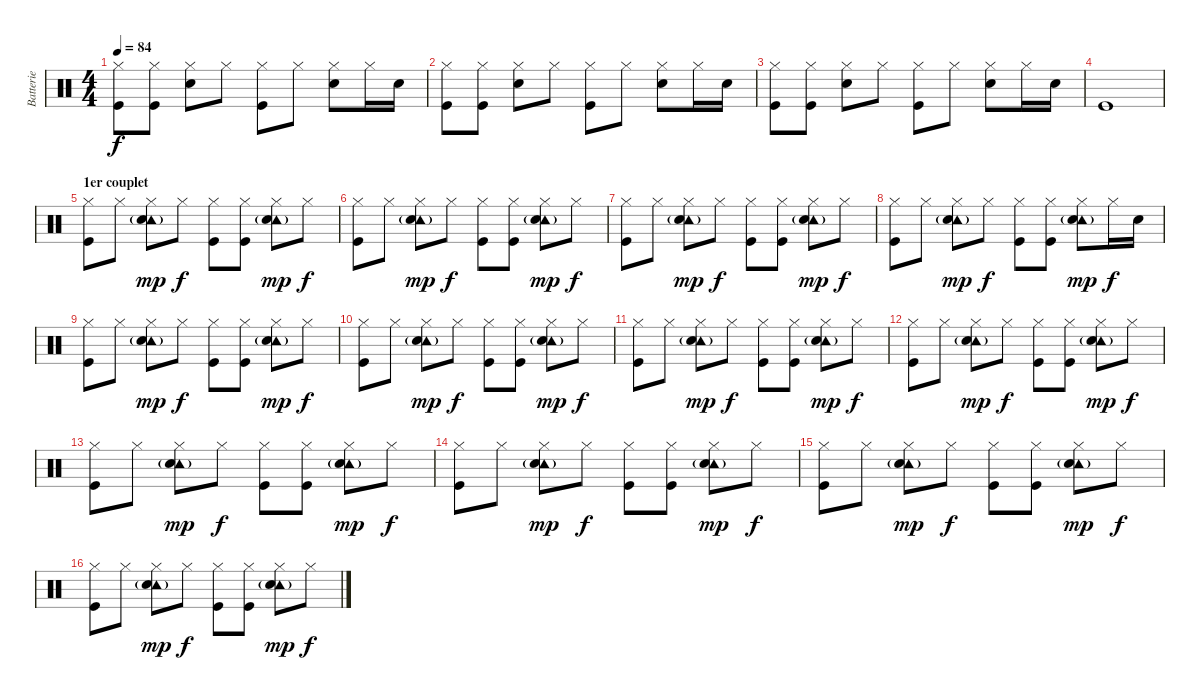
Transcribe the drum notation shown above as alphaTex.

\track ("Batterie" "Batterie") {instrument percussion}
\staff {score}
\articulation defaults
\ts (4 4)
\tempo 84
\clef neutral
\ks c
("Hi-Hat (closed)" "Kick (hit)").8{dy f} ("Hi-Hat (closed)" "Kick (hit)").8 ("Hi-Hat (closed)" "Snare (hit) 2").8 "Hi-Hat (closed)".8 ("Hi-Hat (closed)" "Kick (hit)").8 "Hi-Hat (closed)".8 ("Hi-Hat (closed)" "Snare (hit) 2").8 "Hi-Hat (closed)".16 "Snare (hit) 2".16 |
("Hi-Hat (closed)" "Kick (hit)").8 ("Hi-Hat (closed)" "Kick (hit)").8 ("Hi-Hat (closed)" "Snare (hit) 2").8 "Hi-Hat (closed)".8 ("Hi-Hat (closed)" "Kick (hit)").8 "Hi-Hat (closed)".8 ("Hi-Hat (closed)" "Snare (hit) 2").8 "Hi-Hat (closed)".16 "Snare (hit) 2".16 |
("Hi-Hat (closed)" "Kick (hit)").8 ("Hi-Hat (closed)" "Kick (hit)").8 ("Hi-Hat (closed)" "Snare (hit) 2").8 "Hi-Hat (closed)".8 ("Hi-Hat (closed)" "Kick (hit)").8 "Hi-Hat (closed)".8 ("Hi-Hat (closed)" "Snare (hit) 2").8 "Hi-Hat (closed)".16 "Snare (hit) 2".16 |
"Kick (hit)".1 |
\section ("" "1er couplet")
("Hi-Hat (closed)" "Kick (hit)").8 "Hi-Hat (closed)".8 ("Hi-Hat (closed)" "Tambourine (hit)"{g} "Snare (hit) 2").8{dy mp} "Hi-Hat (closed)".8{dy f} ("Hi-Hat (closed)" "Kick (hit)").8 ("Hi-Hat (closed)" "Kick (hit)").8 ("Hi-Hat (closed)" "Tambourine (hit)"{g} "Snare (hit) 2").8{dy mp} "Hi-Hat (closed)".8{dy f} |
("Hi-Hat (closed)" "Kick (hit)").8 "Hi-Hat (closed)".8 ("Hi-Hat (closed)" "Tambourine (hit)"{g} "Snare (hit) 2").8{dy mp} "Hi-Hat (closed)".8{dy f} ("Hi-Hat (closed)" "Kick (hit)").8 ("Hi-Hat (closed)" "Kick (hit)").8 ("Hi-Hat (closed)" "Tambourine (hit)"{g} "Snare (hit) 2").8{dy mp} "Hi-Hat (closed)".8{dy f} |
("Hi-Hat (closed)" "Kick (hit)").8 "Hi-Hat (closed)".8 ("Hi-Hat (closed)" "Tambourine (hit)"{g} "Snare (hit) 2").8{dy mp} "Hi-Hat (closed)".8{dy f} ("Hi-Hat (closed)" "Kick (hit)").8 ("Hi-Hat (closed)" "Kick (hit)").8 ("Hi-Hat (closed)" "Tambourine (hit)"{g} "Snare (hit) 2").8{dy mp} "Hi-Hat (closed)".8{dy f} |
("Hi-Hat (closed)" "Kick (hit)").8 "Hi-Hat (closed)".8 ("Hi-Hat (closed)" "Tambourine (hit)"{g} "Snare (hit) 2").8{dy mp} "Hi-Hat (closed)".8{dy f} ("Hi-Hat (closed)" "Kick (hit)").8 ("Hi-Hat (closed)" "Kick (hit)").8 ("Hi-Hat (closed)" "Tambourine (hit)"{g} "Snare (hit) 2").8{dy mp} "Hi-Hat (closed)".16{dy f} "Snare (hit) 2".16 |
("Hi-Hat (closed)" "Kick (hit)").8 "Hi-Hat (closed)".8 ("Hi-Hat (closed)" "Tambourine (hit)"{g} "Snare (hit) 2").8{dy mp} "Hi-Hat (closed)".8{dy f} ("Hi-Hat (closed)" "Kick (hit)").8 ("Hi-Hat (closed)" "Kick (hit)").8 ("Hi-Hat (closed)" "Tambourine (hit)"{g} "Snare (hit) 2").8{dy mp} "Hi-Hat (closed)".8{dy f} |
("Hi-Hat (closed)" "Kick (hit)").8 "Hi-Hat (closed)".8 ("Hi-Hat (closed)" "Tambourine (hit)"{g} "Snare (hit) 2").8{dy mp} "Hi-Hat (closed)".8{dy f} ("Hi-Hat (closed)" "Kick (hit)").8 ("Hi-Hat (closed)" "Kick (hit)").8 ("Hi-Hat (closed)" "Tambourine (hit)"{g} "Snare (hit) 2").8{dy mp} "Hi-Hat (closed)".8{dy f} |
("Hi-Hat (closed)" "Kick (hit)").8 "Hi-Hat (closed)".8 ("Hi-Hat (closed)" "Tambourine (hit)"{g} "Snare (hit) 2").8{dy mp} "Hi-Hat (closed)".8{dy f} ("Hi-Hat (closed)" "Kick (hit)").8 ("Hi-Hat (closed)" "Kick (hit)").8 ("Hi-Hat (closed)" "Tambourine (hit)"{g} "Snare (hit) 2").8{dy mp} "Hi-Hat (closed)".8{dy f} |
("Hi-Hat (closed)" "Kick (hit)").8 "Hi-Hat (closed)".8 ("Hi-Hat (closed)" "Tambourine (hit)"{g} "Snare (hit) 2").8{dy mp} "Hi-Hat (closed)".8{dy f} ("Hi-Hat (closed)" "Kick (hit)").8 ("Hi-Hat (closed)" "Kick (hit)").8 ("Hi-Hat (closed)" "Tambourine (hit)"{g} "Snare (hit) 2").8{dy mp} "Hi-Hat (closed)".8{dy f} |
\section ("" "")
("Hi-Hat (closed)" "Kick (hit)").8 "Hi-Hat (closed)".8 ("Hi-Hat (closed)" "Tambourine (hit)"{g} "Snare (hit) 2").8{dy mp} "Hi-Hat (closed)".8{dy f} ("Hi-Hat (closed)" "Kick (hit)").8 ("Hi-Hat (closed)" "Kick (hit)").8 ("Hi-Hat (closed)" "Tambourine (hit)"{g} "Snare (hit) 2").8{dy mp} "Hi-Hat (closed)".8{dy f} |
("Hi-Hat (closed)" "Kick (hit)").8 "Hi-Hat (closed)".8 ("Hi-Hat (closed)" "Tambourine (hit)"{g} "Snare (hit) 2").8{dy mp} "Hi-Hat (closed)".8{dy f} ("Hi-Hat (closed)" "Kick (hit)").8 ("Hi-Hat (closed)" "Kick (hit)").8 ("Hi-Hat (closed)" "Tambourine (hit)"{g} "Snare (hit) 2").8{dy mp} "Hi-Hat (closed)".8{dy f} |
("Hi-Hat (closed)" "Kick (hit)").8 "Hi-Hat (closed)".8 ("Hi-Hat (closed)" "Tambourine (hit)"{g} "Snare (hit) 2").8{dy mp} "Hi-Hat (closed)".8{dy f} ("Hi-Hat (closed)" "Kick (hit)").8 ("Hi-Hat (closed)" "Kick (hit)").8 ("Hi-Hat (closed)" "Tambourine (hit)"{g} "Snare (hit) 2").8{dy mp} "Hi-Hat (closed)".8{dy f} |
("Hi-Hat (closed)" "Kick (hit)").8 "Hi-Hat (closed)".8 ("Hi-Hat (closed)" "Tambourine (hit)"{g} "Snare (hit) 2").8{dy mp} "Hi-Hat (closed)".8{dy f} ("Hi-Hat (closed)" "Kick (hit)").8 ("Hi-Hat (closed)" "Kick (hit)").8 ("Hi-Hat (closed)" "Tambourine (hit)"{g} "Snare (hit) 2").8{dy mp} "Hi-Hat (closed)".8{dy f}
